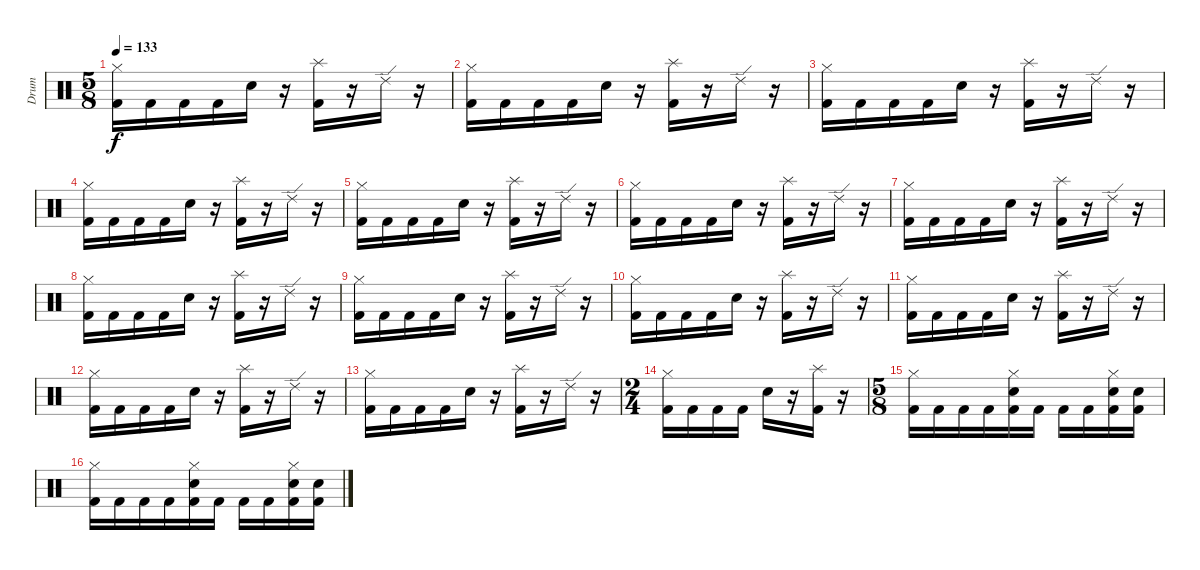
\track ("Drum" "Drum") {instrument percussion}
\staff {score}
\articulation defaults
\ts (5 8)
\tempo 133
\clef neutral
\ks c
("Hi-Hat (closed)" "Kick (hit) 2").16{dy f} "Kick (hit) 2".16 "Kick (hit) 2".16 "Kick (hit) 2".16 "Snare (hit) 2".16 r.16 ("Splash (hit)" "Kick (hit) 2").16 r.16 "Ride (edge) 2".16 r.16 |
("Hi-Hat (closed)" "Kick (hit) 2").16 "Kick (hit) 2".16 "Kick (hit) 2".16 "Kick (hit) 2".16 "Snare (hit) 2".16 r.16 ("Splash (hit)" "Kick (hit) 2").16 r.16 "Ride (edge) 2".16 r.16 |
("Hi-Hat (closed)" "Kick (hit) 2").16 "Kick (hit) 2".16 "Kick (hit) 2".16 "Kick (hit) 2".16 "Snare (hit) 2".16 r.16 ("Splash (hit)" "Kick (hit) 2").16 r.16 "Ride (edge) 2".16 r.16 |
("Hi-Hat (closed)" "Kick (hit) 2").16 "Kick (hit) 2".16 "Kick (hit) 2".16 "Kick (hit) 2".16 "Snare (hit) 2".16 r.16 ("Splash (hit)" "Kick (hit) 2").16 r.16 "Ride (edge) 2".16 r.16 |
("Hi-Hat (closed)" "Kick (hit) 2").16 "Kick (hit) 2".16 "Kick (hit) 2".16 "Kick (hit) 2".16 "Snare (hit) 2".16 r.16 ("Splash (hit)" "Kick (hit) 2").16 r.16 "Ride (edge) 2".16 r.16 |
("Hi-Hat (closed)" "Kick (hit) 2").16 "Kick (hit) 2".16 "Kick (hit) 2".16 "Kick (hit) 2".16 "Snare (hit) 2".16 r.16 ("Splash (hit)" "Kick (hit) 2").16 r.16 "Ride (edge) 2".16 r.16 |
("Hi-Hat (closed)" "Kick (hit) 2").16 "Kick (hit) 2".16 "Kick (hit) 2".16 "Kick (hit) 2".16 "Snare (hit) 2".16 r.16 ("Splash (hit)" "Kick (hit) 2").16 r.16 "Ride (edge) 2".16 r.16 |
("Hi-Hat (closed)" "Kick (hit) 2").16 "Kick (hit) 2".16 "Kick (hit) 2".16 "Kick (hit) 2".16 "Snare (hit) 2".16 r.16 ("Splash (hit)" "Kick (hit) 2").16 r.16 "Ride (edge) 2".16 r.16 |
("Hi-Hat (closed)" "Kick (hit) 2").16 "Kick (hit) 2".16 "Kick (hit) 2".16 "Kick (hit) 2".16 "Snare (hit) 2".16 r.16 ("Splash (hit)" "Kick (hit) 2").16 r.16 "Ride (edge) 2".16 r.16 |
("Hi-Hat (closed)" "Kick (hit) 2").16 "Kick (hit) 2".16 "Kick (hit) 2".16 "Kick (hit) 2".16 "Snare (hit) 2".16 r.16 ("Splash (hit)" "Kick (hit) 2").16 r.16 "Ride (edge) 2".16 r.16 |
("Hi-Hat (closed)" "Kick (hit) 2").16 "Kick (hit) 2".16 "Kick (hit) 2".16 "Kick (hit) 2".16 "Snare (hit) 2".16 r.16 ("Splash (hit)" "Kick (hit) 2").16 r.16 "Ride (edge) 2".16 r.16 |
("Hi-Hat (closed)" "Kick (hit) 2").16 "Kick (hit) 2".16 "Kick (hit) 2".16 "Kick (hit) 2".16 "Snare (hit) 2".16 r.16 ("Splash (hit)" "Kick (hit) 2").16 r.16 "Ride (edge) 2".16 r.16 |
("Hi-Hat (closed)" "Kick (hit) 2").16 "Kick (hit) 2".16 "Kick (hit) 2".16 "Kick (hit) 2".16 "Snare (hit) 2".16 r.16 ("Splash (hit)" "Kick (hit) 2").16 r.16 "Ride (edge) 2".16 r.16 |
\ts (2 4)
("Hi-Hat (closed)" "Kick (hit) 2").16 "Kick (hit) 2".16 "Kick (hit) 2".16 "Kick (hit) 2".16 "Snare (hit) 2".16 r.16 ("Splash (hit)" "Kick (hit) 2").16 r.16 |
\ts (5 8)
("Hi-Hat (closed)" "Kick (hit) 2").16 "Kick (hit) 2".16 "Kick (hit) 2".16 "Kick (hit) 2".16 ("Hi-Hat (closed)" "Snare (hit) 2" "Kick (hit) 2").16 "Kick (hit) 2".16 "Kick (hit) 2".16 "Kick (hit) 2".16 ("Hi-Hat (closed)" "Snare (hit) 2" "Kick (hit) 2").16 ("Snare (hit) 2" "Kick (hit) 2").16 |
("Hi-Hat (closed)" "Kick (hit) 2").16 "Kick (hit) 2".16 "Kick (hit) 2".16 "Kick (hit) 2".16 ("Hi-Hat (closed)" "Snare (hit) 2" "Kick (hit) 2").16 "Kick (hit) 2".16 "Kick (hit) 2".16 "Kick (hit) 2".16 ("Hi-Hat (closed)" "Snare (hit) 2" "Kick (hit) 2").16 ("Snare (hit) 2" "Kick (hit) 2").16
